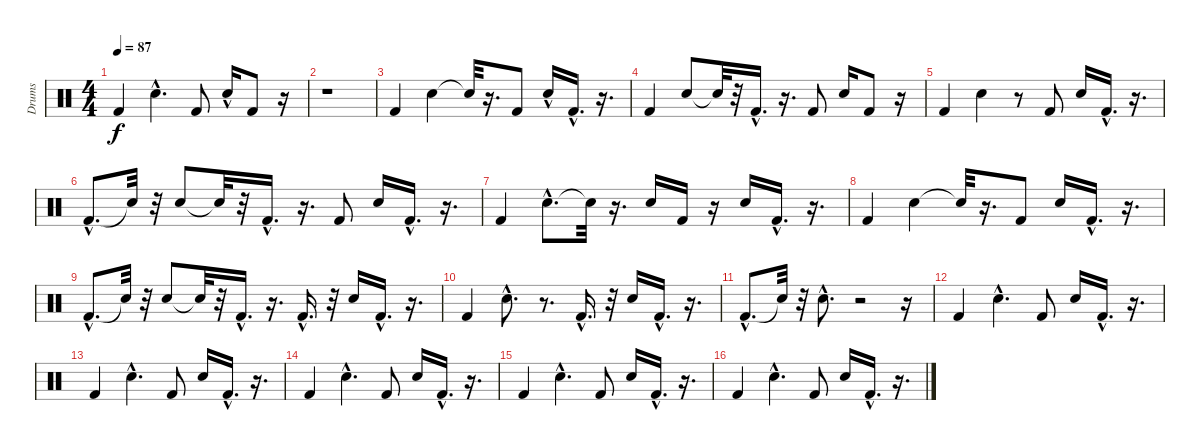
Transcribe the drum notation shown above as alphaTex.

\track ("Drums" "Drums") {instrument percussion}
\staff {score}
\articulation defaults
\ts (4 4)
\tempo 87
\clef neutral
\ks c "Kick (hit) 2".4{dy f} "Electric Snare (hit)"{hac}.4{d} "Kick (hit) 2".8 "Electric Snare (hit)"{hac}.16 "Kick (hit) 2".8
r.16 |
r.1 |
"Kick (hit) 2".4 "Electric Snare (hit)".4 "Snare (hit)"{t}.32 r.16{d} "Kick (hit) 2".8 "Electric Snare (hit)"{hac}.16 "Kick (hit) 2"{hac}.16{d} r.16{d} |
"Kick (hit) 2".4 "Electric Snare (hit)".8 "Snare (hit)"{t}.32 r.32 "Kick (hit) 2"{hac}.16{d} r.16{d} "Kick (hit) 2".8 "Electric Snare (hit)".16 "Kick (hit) 2".8 r.16 |
"Kick (hit) 2".4 "Electric Snare (hit)".4 r.8 "Kick (hit) 2".8 "Electric Snare (hit)".16 "Kick (hit) 2"{hac}.16{d} r.16{d} |
"Kick (hit) 2"{hac}.8{d} "Snare (hit)"{t}.32 r.32 "Electric Snare (hit)".8 "Snare (hit)"{t}.32 r.32 "Kick (hit) 2"{hac}.16{d} r.16{d} "Kick (hit) 2".8 "Electric Snare (hit)".16 "Kick (hit) 2"{hac}.16{d} r.16{d} |
"Kick (hit) 2".4 "Electric Snare (hit)"{hac}.8{d} "Snare (hit)"{t}.32 r.16{d} "Electric Snare (hit)".16 "Kick (hit) 2".16 r.16 "Electric Snare (hit)".16 "Kick (hit) 2"{hac}.16{d} r.16{d} |
"Kick (hit) 2".4 "Electric Snare (hit)".4 "Snare (hit)"{t}.32 r.16{d} "Kick (hit) 2".8 "Electric Snare (hit)".16 "Kick (hit) 2"{hac}.16{d} r.16{d} |
"Kick (hit) 2"{hac}.8{d} "Snare (hit)"{t}.32 r.32 "Electric Snare (hit)".8 "Snare (hit)"{t}.32 r.32 "Kick (hit) 2"{hac}.16{d} r.16{d} "Kick (hit) 2"{hac}.16{d} r.32 "Electric Snare (hit)".16 "Kick (hit) 2"{hac}.16{d} r.16{d} |
"Kick (hit) 2".4 "Electric Snare (hit)"{hac}.8{d} r.8{d} "Kick (hit) 2"{hac}.16{d} r.32 "Electric Snare (hit)".16 "Kick (hit) 2"{hac}.16{d} r.16{d} |
"Kick (hit) 2"{hac}.8{d} "Snare (hit)"{t}.32 r.32 "Electric Snare (hit)"{hac}.8{d} r.2 r.16 |
"Kick (hit) 2".4 "Electric Snare (hit)"{hac}.4{d} "Kick (hit) 2".8 "Electric Snare (hit)".16 "Kick (hit) 2"{hac}.16{d} r.16{d} |
"Kick (hit) 2".4 "Electric Snare (hit)"{hac}.4{d} "Kick (hit) 2".8 "Electric Snare (hit)".16 "Kick (hit) 2"{hac}.16{d} r.16{d} |
"Kick (hit) 2".4 "Electric Snare (hit)"{hac}.4{d} "Kick (hit) 2".8 "Electric Snare (hit)".16 "Kick (hit) 2"{hac}.16{d} r.16{d} |
"Kick (hit) 2".4 "Electric Snare (hit)"{hac}.4{d} "Kick (hit) 2".8 "Electric Snare (hit)".16 "Kick (hit) 2"{hac}.16{d} r.16{d} |
"Kick (hit) 2".4 "Electric Snare (hit)"{hac}.4{d} "Kick (hit) 2".8 "Electric Snare (hit)".16 "Kick (hit) 2"{hac}.16{d} r.16{d}
